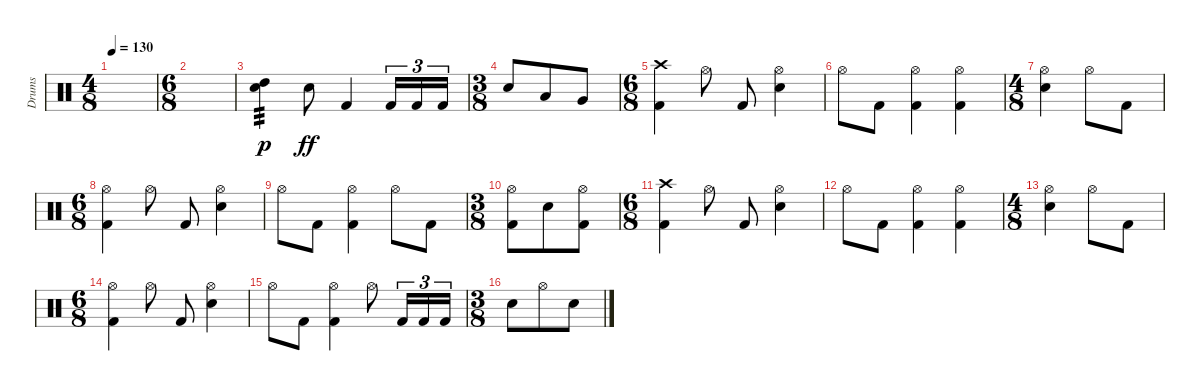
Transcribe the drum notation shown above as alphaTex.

\track ("Drums" "Drums") {instrument percussion}
\staff {score}
\articulation defaults
\ts (4 8)
\tempo 130
\clef neutral
\ks c
|
\ts (6 8)
|
("High Tom (hit)" "Snare (hit) 2").4{tp 3 dy p} "Snare (hit) 2".8{dy ff} "Kick (hit) 2".4 "Kick (hit) 2".16{tu (3 2)} "Kick (hit) 2".16{tu (3 2)} "Kick (hit) 2".16{tu (3 2)} |
\ts (3 8)
"Snare (hit) 2".8 "Low Tom (hit)".8 "Very Low Tom (hit)".8 |
\ts (6 8)
("Kick (hit) 2" "Crash high (hit)").4 "Hi-Hat (open)".8 "Kick (hit) 2".8 ("Hi-Hat (open)" "Snare (hit) 2").4 |
"Hi-Hat (open)".8 "Kick (hit) 2".8 ("Hi-Hat (open)" "Kick (hit) 2").4 ("Kick (hit) 2" "Hi-Hat (open)").4 |
\ts (4 8)
("Hi-Hat (open)" "Snare (hit) 2").4 "Hi-Hat (open)".8 "Kick (hit) 2".8 |
\ts (6 8)
("Kick (hit) 2" "Hi-Hat (open)").4 "Hi-Hat (open)".8 "Kick (hit) 2".8 ("Hi-Hat (open)" "Snare (hit) 2").4 |
"Hi-Hat (open)".8 "Kick (hit) 2".8 ("Hi-Hat (open)" "Kick (hit) 2").4 "Hi-Hat (open)".8 "Kick (hit) 2".8 |
\ts (3 8)
("Kick (hit) 2" "Hi-Hat (open)").8 "Snare (hit) 2".8 ("Hi-Hat (open)" "Kick (hit) 2").8 |
\ts (6 8)
("Kick (hit) 2" "Crash high (hit)").4 "Hi-Hat (open)".8 "Kick (hit) 2".8 ("Hi-Hat (open)" "Snare (hit) 2").4 |
"Hi-Hat (open)".8 "Kick (hit) 2".8 ("Hi-Hat (open)" "Kick (hit) 2").4 ("Kick (hit) 2" "Hi-Hat (open)").4 |
\ts (4 8)
("Hi-Hat (open)" "Snare (hit) 2").4 "Hi-Hat (open)".8 "Kick (hit) 2".8 |
\ts (6 8)
("Kick (hit) 2" "Hi-Hat (open)").4 "Hi-Hat (open)".8 "Kick (hit) 2".8 ("Hi-Hat (open)" "Snare (hit) 2").4 |
"Hi-Hat (open)".8 "Kick (hit) 2".8 ("Hi-Hat (open)" "Kick (hit) 2").4 "Hi-Hat (open)".8 "Kick (hit) 2".16{tu (3 2)} "Kick (hit) 2".16{tu (3 2)} "Kick (hit) 2".16{tu (3 2)} |
\ts (3 8)
"Snare (hit) 2".8 "Hi-Hat (open)".8 "Snare (hit) 2".8
